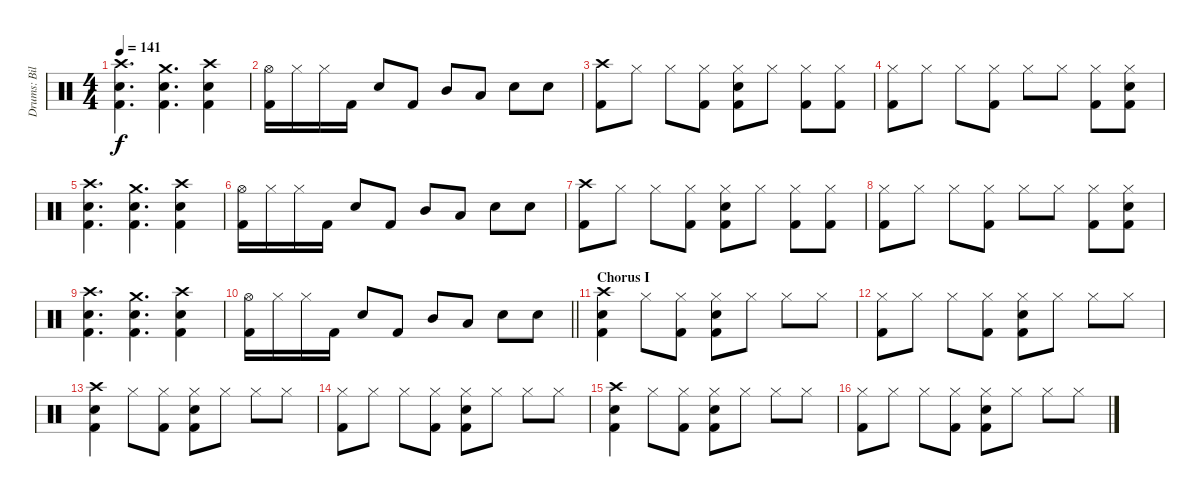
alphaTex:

\track ("Drums: Bill" "Drums: Bil") {instrument percussion}
\staff {score}
\articulation defaults
\ts (4 4)
\tempo 141
\clef neutral
\ks c
("Crash high (hit)" "Snare (hit) 2" "Kick (hit) 2").4{d dy f} ("Crash medium (hit)" "Snare (hit) 2" "Kick (hit) 2").4{d} ("Crash high (hit)" "Snare (hit) 2" "Kick (hit) 2").4 |
("Hi-Hat (open)" "Kick (hit) 2").16 "Hi-Hat (closed)".16 "Hi-Hat (closed)".16 "Kick (hit) 2".16 "Snare (hit) 2".8 "Kick (hit) 2".8 "Mid Tom (hit)".8 "Low Tom (hit)".8 "Snare (hit) 2".8 "Snare (hit) 2".8 |
("Crash high (hit)" "Kick (hit) 2").8 "Hi-Hat (closed)".8 "Hi-Hat (closed)".8 ("Hi-Hat (closed)" "Kick (hit) 2").8 ("Hi-Hat (closed)" "Snare (hit) 2" "Kick (hit) 2").8 "Hi-Hat (closed)".8 ("Hi-Hat (closed)" "Kick (hit) 2").8 ("Hi-Hat (closed)" "Kick (hit) 2").8 |
("Hi-Hat (closed)" "Kick (hit) 2").8 "Hi-Hat (closed)".8 "Hi-Hat (closed)".8 ("Hi-Hat (closed)" "Kick (hit) 2").8 "Hi-Hat (closed)".8 "Hi-Hat (closed)".8 ("Hi-Hat (closed)" "Kick (hit) 2").8 ("Hi-Hat (closed)" "Snare (hit) 2" "Kick (hit) 2").8 |
("Crash high (hit)" "Snare (hit) 2" "Kick (hit) 2").4{d} ("Crash medium (hit)" "Snare (hit) 2" "Kick (hit) 2").4{d} ("Crash high (hit)" "Snare (hit) 2" "Kick (hit) 2").4 |
("Hi-Hat (open)" "Kick (hit) 2").16 "Hi-Hat (closed)".16 "Hi-Hat (closed)".16 "Kick (hit) 2".16 "Snare (hit) 2".8 "Kick (hit) 2".8 "Mid Tom (hit)".8 "Low Tom (hit)".8 "Snare (hit) 2".8 "Snare (hit) 2".8 |
("Crash high (hit)" "Kick (hit) 2").8 "Hi-Hat (closed)".8 "Hi-Hat (closed)".8 ("Hi-Hat (closed)" "Kick (hit) 2").8 ("Hi-Hat (closed)" "Snare (hit) 2" "Kick (hit) 2").8 "Hi-Hat (closed)".8 ("Hi-Hat (closed)" "Kick (hit) 2").8 ("Hi-Hat (closed)" "Kick (hit) 2").8 |
("Hi-Hat (closed)" "Kick (hit) 2").8 "Hi-Hat (closed)".8 "Hi-Hat (closed)".8 ("Hi-Hat (closed)" "Kick (hit) 2").8 "Hi-Hat (closed)".8 "Hi-Hat (closed)".8 ("Hi-Hat (closed)" "Kick (hit) 2").8 ("Hi-Hat (closed)" "Snare (hit) 2" "Kick (hit) 2").8 |
("Crash high (hit)" "Snare (hit) 2" "Kick (hit) 2").4{d} ("Crash medium (hit)" "Snare (hit) 2" "Kick (hit) 2").4{d} ("Crash high (hit)" "Snare (hit) 2" "Kick (hit) 2").4 |
\barLineRight lightlight
("Hi-Hat (open)" "Kick (hit) 2").16 "Hi-Hat (closed)".16 "Hi-Hat (closed)".16 "Kick (hit) 2".16 "Snare (hit) 2".8 "Kick (hit) 2".8 "Mid Tom (hit)".8 "Low Tom (hit)".8 "Snare (hit) 2".8 "Snare (hit) 2".8 |
\section ("" "Chorus I")
("Crash high (hit)" "Snare (hit) 2" "Kick (hit) 2").4 "Hi-Hat (closed)".8 ("Hi-Hat (closed)" "Kick (hit) 2").8 ("Hi-Hat (closed)" "Snare (hit) 2" "Kick (hit) 2").8 "Hi-Hat (closed)".8 "Hi-Hat (closed)".8 "Hi-Hat (closed)".8 |
("Hi-Hat (closed)" "Kick (hit) 2").8 "Hi-Hat (closed)".8 "Hi-Hat (closed)".8 ("Hi-Hat (closed)" "Kick (hit) 2").8 ("Hi-Hat (closed)" "Snare (hit) 2" "Kick (hit) 2").8 "Hi-Hat (closed)".8 "Hi-Hat (closed)".8 "Hi-Hat (closed)".8 |
("Crash high (hit)" "Snare (hit) 2" "Kick (hit) 2").4 "Hi-Hat (closed)".8 ("Hi-Hat (closed)" "Kick (hit) 2").8 ("Hi-Hat (closed)" "Snare (hit) 2" "Kick (hit) 2").8 "Hi-Hat (closed)".8 "Hi-Hat (closed)".8 "Hi-Hat (closed)".8 |
("Hi-Hat (closed)" "Kick (hit) 2").8 "Hi-Hat (closed)".8 "Hi-Hat (closed)".8 ("Hi-Hat (closed)" "Kick (hit) 2").8 ("Hi-Hat (closed)" "Snare (hit) 2" "Kick (hit) 2").8 "Hi-Hat (closed)".8 "Hi-Hat (closed)".8 "Hi-Hat (closed)".8 |
("Crash high (hit)" "Snare (hit) 2" "Kick (hit) 2").4 "Hi-Hat (closed)".8 ("Hi-Hat (closed)" "Kick (hit) 2").8 ("Hi-Hat (closed)" "Snare (hit) 2" "Kick (hit) 2").8 "Hi-Hat (closed)".8 "Hi-Hat (closed)".8 "Hi-Hat (closed)".8 |
("Hi-Hat (closed)" "Kick (hit) 2").8 "Hi-Hat (closed)".8 "Hi-Hat (closed)".8 ("Hi-Hat (closed)" "Kick (hit) 2").8 ("Hi-Hat (closed)" "Snare (hit) 2" "Kick (hit) 2").8 "Hi-Hat (closed)".8 "Hi-Hat (closed)".8 "Hi-Hat (closed)".8
